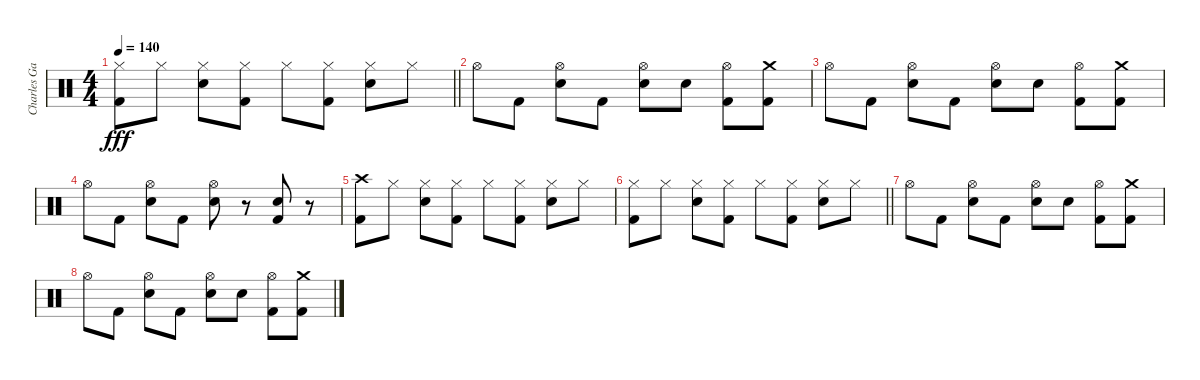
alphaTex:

\track ("Charles Gavin" "Charles Ga") {instrument percussion}
\staff {score}
\articulation defaults
\ts (4 4)
\tempo 140
\clef neutral
\barLineRight lightlight
\ks c
("Hi-Hat (closed)" "Kick (hit) 2").8{dy fff} "Hi-Hat (closed)".8 ("Hi-Hat (closed)" "Snare (hit) 2").8 ("Hi-Hat (closed)" "Kick (hit) 2").8 "Hi-Hat (closed)".8 ("Hi-Hat (closed)" "Kick (hit) 2").8 ("Hi-Hat (closed)" "Snare (hit) 2").8 "Hi-Hat (closed)".8 |
"Hi-Hat (open)".8 "Kick (hit) 2".8 ("Hi-Hat (open)" "Snare (hit) 2").8 "Kick (hit) 2".8 ("Hi-Hat (open)" "Snare (hit) 2").8 "Snare (hit) 2".8 ("Hi-Hat (open)" "Kick (hit) 2").8 ("Crash medium (hit)" "Kick (hit) 2").8 |
"Hi-Hat (open)".8 "Kick (hit) 2".8 ("Hi-Hat (open)" "Snare (hit) 2").8 "Kick (hit) 2".8 ("Hi-Hat (open)" "Snare (hit) 2").8 "Snare (hit) 2".8 ("Hi-Hat (open)" "Kick (hit) 2").8 ("Crash medium (hit)" "Kick (hit) 2").8 |
"Hi-Hat (open)".8 "Kick (hit) 2".8 ("Hi-Hat (open)" "Snare (hit) 2").8 "Kick (hit) 2".8 ("Hi-Hat (open)" "Snare (hit) 2").8 r.8 ("Kick (hit) 2" "Snare (hit) 2").8 r.8 |
("Crash high (hit)" "Kick (hit) 2").8 "Hi-Hat (closed)".8 ("Hi-Hat (closed)" "Snare (hit) 2").8 ("Hi-Hat (closed)" "Kick (hit) 2").8 "Hi-Hat (closed)".8 ("Hi-Hat (closed)" "Kick (hit) 2").8 ("Hi-Hat (closed)" "Snare (hit) 2").8 "Hi-Hat (closed)".8 |
\barLineRight lightlight
("Hi-Hat (closed)" "Kick (hit) 2").8 "Hi-Hat (closed)".8 ("Hi-Hat (closed)" "Snare (hit) 2").8 ("Hi-Hat (closed)" "Kick (hit) 2").8 "Hi-Hat (closed)".8 ("Hi-Hat (closed)" "Kick (hit) 2").8 ("Hi-Hat (closed)" "Snare (hit) 2").8 "Hi-Hat (closed)".8 |
"Hi-Hat (open)".8 "Kick (hit) 2".8 ("Hi-Hat (open)" "Snare (hit) 2").8 "Kick (hit) 2".8 ("Hi-Hat (open)" "Snare (hit) 2").8 "Snare (hit) 2".8 ("Hi-Hat (open)" "Kick (hit) 2").8 ("Crash medium (hit)" "Kick (hit) 2").8 |
"Hi-Hat (open)".8 "Kick (hit) 2".8 ("Hi-Hat (open)" "Snare (hit) 2").8 "Kick (hit) 2".8 ("Hi-Hat (open)" "Snare (hit) 2").8 "Snare (hit) 2".8 ("Hi-Hat (open)" "Kick (hit) 2").8 ("Crash medium (hit)" "Kick (hit) 2").8
